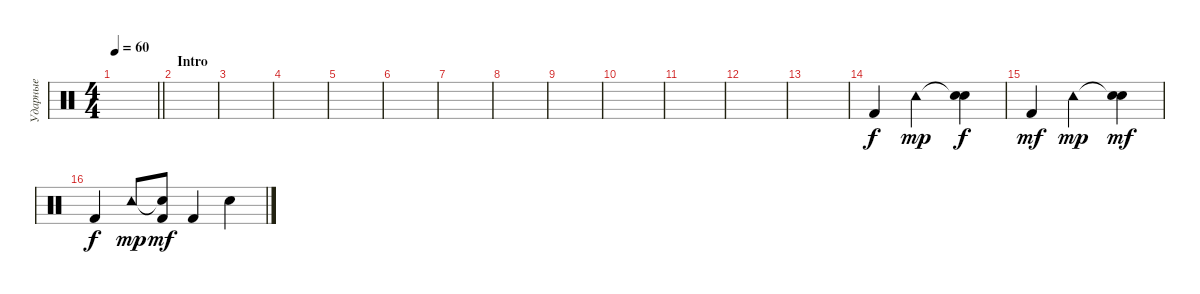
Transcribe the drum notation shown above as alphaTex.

\track ("Ударные" "Ударные") {instrument percussion}
\staff {score}
\articulation defaults
\ts (4 4)
\tempo 60
\clef neutral
\barLineRight lightlight
\ks c
|
\section ("" "Intro")
|
|
|
|
|
|
|
|
|
|
|
|
"Kick (hit) 2".4 "Tambourine (hit)".2{dy mp} ("Snare (hit)"{t} "Snare (hit) 2").4{dy f} |
"Kick (hit) 2".4{dy mf} "Tambourine (hit)".2{dy mp} ("Snare (hit)"{t} "Snare (hit) 2").4{dy mf} |
"Kick (hit) 2".4{dy f} "Tambourine (hit)".8{dy mp} ("Snare (hit)"{t} "Kick (hit) 2").8{dy mf} "Kick (hit) 2".4 "Snare (hit) 2".4
